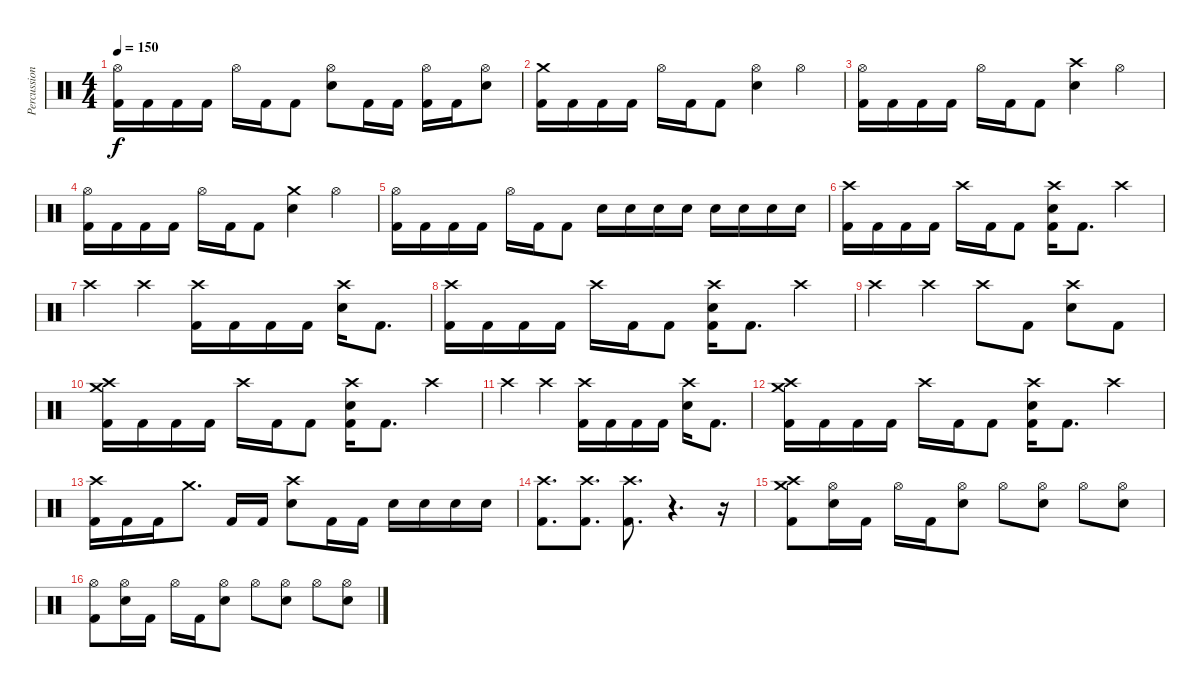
\track ("Percussion" "Percussion") {instrument percussion}
\staff {score}
\articulation defaults
\ts (4 4)
\tempo 150
\clef neutral
\ks c
("Hi-Hat (open)" "Kick (hit) 2").16{dy f} "Kick (hit) 2".16 "Kick (hit) 2".16 "Kick (hit) 2".16 "Hi-Hat (open)".16 "Kick (hit) 2".16 "Kick (hit) 2".8 ("Hi-Hat (open)" "Electric Snare (hit)").8 "Kick (hit) 2".16 "Kick (hit) 2".16 ("Hi-Hat (open)" "Kick (hit) 2").16 "Kick (hit) 2".16 ("Hi-Hat (open)" "Electric Snare (hit)").8 |
("Crash medium (hit)" "Kick (hit) 2").16 "Kick (hit) 2".16 "Kick (hit) 2".16 "Kick (hit) 2".16 "Hi-Hat (open)".16 "Kick (hit) 2".16 "Kick (hit) 2".8 ("Hi-Hat (open)" "Electric Snare (hit)").4 "Hi-Hat (open)".4 |
("Hi-Hat (open)" "Kick (hit) 2").16 "Kick (hit) 2".16 "Kick (hit) 2".16 "Kick (hit) 2".16 "Hi-Hat (open)".16 "Kick (hit) 2".16 "Kick (hit) 2".8 ("Crash high (hit)" "Electric Snare (hit)").4 "Hi-Hat (open)".4 |
("Hi-Hat (open)" "Kick (hit) 2").16 "Kick (hit) 2".16 "Kick (hit) 2".16 "Kick (hit) 2".16 "Hi-Hat (open)".16 "Kick (hit) 2".16 "Kick (hit) 2".8 ("Crash medium (hit)" "Electric Snare (hit)").4 "Hi-Hat (open)".4 |
("Hi-Hat (open)" "Kick (hit) 2").16 "Kick (hit) 2".16 "Kick (hit) 2".16 "Kick (hit) 2".16 "Hi-Hat (open)".16 "Kick (hit) 2".16 "Kick (hit) 2".8 "Electric Snare (hit)".16 "Electric Snare (hit)".16 "Electric Snare (hit)".16 "Electric Snare (hit)".16 "Electric Snare (hit)".16 "Electric Snare (hit)".16 "Electric Snare (hit)".16 "Electric Snare (hit)".16 |
("Crash high (hit)" "Kick (hit) 2").16 "Kick (hit) 2".16 "Kick (hit) 2".16 "Kick (hit) 2".16 "Crash high (hit)".16 "Kick (hit) 2".16 "Kick (hit) 2".8 ("Crash high (hit)" "Electric Snare (hit)" "Kick (hit) 2").16 "Kick (hit) 2".8{d} "Crash high (hit)".4 |
"Crash high (hit)".4 "Crash high (hit)".4 ("Crash high (hit)" "Kick (hit) 2").16 "Kick (hit) 2".16 "Kick (hit) 2".16 "Kick (hit) 2".16 ("Crash high (hit)" "Electric Snare (hit)").16 "Kick (hit) 2".8{d} |
("Crash high (hit)" "Kick (hit) 2").16 "Kick (hit) 2".16 "Kick (hit) 2".16 "Kick (hit) 2".16 "Crash high (hit)".16 "Kick (hit) 2".16 "Kick (hit) 2".8 ("Crash high (hit)" "Electric Snare (hit)" "Kick (hit) 2").16 "Kick (hit) 2".8{d} "Crash high (hit)".4 |
"Crash high (hit)".4 "Crash high (hit)".4 "Crash high (hit)".8 "Kick (hit) 2".8 ("Crash high (hit)" "Electric Snare (hit)").8 "Kick (hit) 2".8 |
("Crash high (hit)" "Crash medium (hit)" "Kick (hit) 2").16 "Kick (hit) 2".16 "Kick (hit) 2".16 "Kick (hit) 2".16 "Crash high (hit)".16 "Kick (hit) 2".16 "Kick (hit) 2".8 ("Crash high (hit)" "Electric Snare (hit)" "Kick (hit) 2").16 "Kick (hit) 2".8{d} "Crash high (hit)".4 |
"Crash high (hit)".4 "Crash high (hit)".4 ("Crash high (hit)" "Kick (hit) 2").16 "Kick (hit) 2".16 "Kick (hit) 2".16 "Kick (hit) 2".16 ("Crash high (hit)" "Electric Snare (hit)").16 "Kick (hit) 2".8{d} |
("Crash high (hit)" "Crash medium (hit)" "Kick (hit) 2").16 "Kick (hit) 2".16 "Kick (hit) 2".16 "Kick (hit) 2".16 "Crash high (hit)".16 "Kick (hit) 2".16 "Kick (hit) 2".8 ("Crash high (hit)" "Electric Snare (hit)" "Kick (hit) 2").16 "Kick (hit) 2".8{d} "Crash high (hit)".4 |
("Crash high (hit)" "Kick (hit) 2").16 "Kick (hit) 2".16 "Kick (hit) 2".16 "Crash medium (hit)".8{d} "Kick (hit) 2".16 "Kick (hit) 2".16 ("Crash high (hit)" "Electric Snare (hit)").8 "Kick (hit) 2".16 "Kick (hit) 2".16 "Electric Snare (hit)".16 "Electric Snare (hit)".16 "Electric Snare (hit)".16 "Electric Snare (hit)".16 |
("Crash high (hit)" "Kick (hit) 2").8{d} ("Crash high (hit)" "Kick (hit) 2").8{d} ("Crash high (hit)" "Kick (hit) 2").8{d} r.4{d} r.16 |
("Crash high (hit)" "Crash medium (hit)" "Kick (hit) 2").8 ("Hi-Hat (open)" "Electric Snare (hit)").16 "Kick (hit) 2".16 "Hi-Hat (open)".16 "Kick (hit) 2".16 ("Hi-Hat (open)" "Electric Snare (hit)").8 "Hi-Hat (open)".8 ("Hi-Hat (open)" "Electric Snare (hit)").8 "Hi-Hat (open)".8 ("Hi-Hat (open)" "Electric Snare (hit)").8 |
("Hi-Hat (open)" "Kick (hit) 2").8 ("Hi-Hat (open)" "Electric Snare (hit)").16 "Kick (hit) 2".16 "Hi-Hat (open)".16 "Kick (hit) 2".16 ("Hi-Hat (open)" "Electric Snare (hit)").8 "Hi-Hat (open)".8 ("Hi-Hat (open)" "Electric Snare (hit)").8 "Hi-Hat (open)".8 ("Hi-Hat (open)" "Electric Snare (hit)").8
